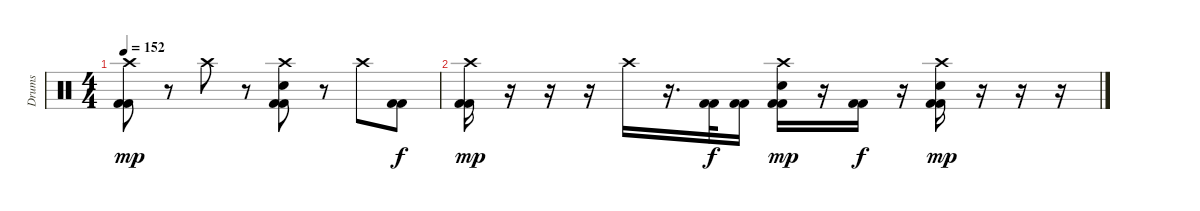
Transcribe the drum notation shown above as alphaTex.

\track ("Drums" "Drums") {instrument percussion}
\staff {score}
\articulation defaults
\ts (4 4)
\tempo 152
\clef neutral
\ks c
("Crash high (hit)" "Kick (hit) 2" "Kick (hit) 2").8{dy mp} r.8 "Crash high (hit)".8 r.8 ("Crash high (hit)" "Snare (hit) 2" "Kick (hit) 2" "Kick (hit) 2").8 r.8 "Crash high (hit)".8 ("Kick (hit) 2" "Kick (hit) 2").8{dy f} |
("Crash high (hit)" "Kick (hit) 2" "Kick (hit) 2").16{dy mp} r.16 r.16 r.16 "Crash high (hit)".16 r.16{d} ("Kick (hit) 2" "Kick (hit) 2").32{dy f} ("Kick (hit) 2" "Kick (hit) 2").16 ("Crash high (hit)" "Snare (hit) 2" "Kick (hit) 2" "Kick (hit) 2").16{dy mp} r.16 ("Kick (hit) 2" "Kick (hit) 2").16{dy f} r.16 ("Crash high (hit)" "Snare (hit) 2" "Kick (hit) 2" "Kick (hit) 2").16{dy mp} r.16 r.16 r.16
